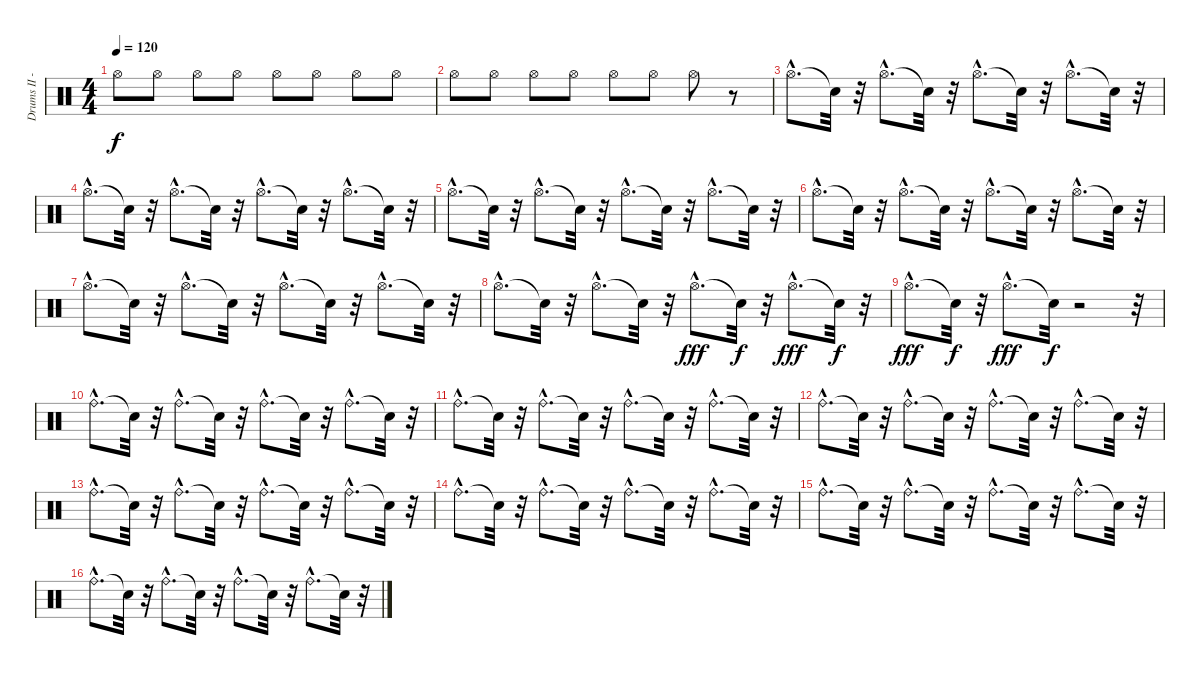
\track ("Drums II - Bobby Schayer" "Drums II -") {instrument percussion}
\staff {score}
\articulation defaults
\ts (4 4)
\tempo 120
\clef neutral
\ks c "Hi-Hat (open)".8{dy f} "Hi-Hat (open)".8 "Hi-Hat (open)".8 "Hi-Hat (open)".8 "Hi-Hat (open)".8 "Hi-Hat (open)".8 "Hi-Hat (open)".8 "Hi-Hat (open)".8
|
"Hi-Hat (open)".8 "Hi-Hat (open)".8 "Hi-Hat (open)".8 "Hi-Hat (open)".8 "Hi-Hat (open)".8 "Hi-Hat (open)".8 "Hi-Hat (open)".8 r.8 |
"Hi-Hat (open)"{hac}.8{d} "Snare (hit)"{t}.32 r.32 "Hi-Hat (open)"{hac}.8{d} "Snare (hit)"{t}.32 r.32 "Hi-Hat (open)"{hac}.8{d} "Snare (hit)"{t}.32 r.32 "Hi-Hat (open)"{hac}.8{d} "Snare (hit)"{t}.32 r.32 |
"Hi-Hat (open)"{hac}.8{d} "Snare (hit)"{t}.32 r.32 "Hi-Hat (open)"{hac}.8{d} "Snare (hit)"{t}.32 r.32 "Hi-Hat (open)"{hac}.8{d} "Snare (hit)"{t}.32 r.32 "Hi-Hat (open)"{hac}.8{d} "Snare (hit)"{t}.32 r.32 |
"Hi-Hat (open)"{hac}.8{d} "Snare (hit)"{t}.32 r.32 "Hi-Hat (open)"{hac}.8{d} "Snare (hit)"{t}.32 r.32 "Hi-Hat (open)"{hac}.8{d} "Snare (hit)"{t}.32 r.32 "Hi-Hat (open)"{hac}.8{d} "Snare (hit)"{t}.32 r.32 |
"Hi-Hat (open)"{hac}.8{d} "Snare (hit)"{t}.32 r.32 "Hi-Hat (open)"{hac}.8{d} "Snare (hit)"{t}.32 r.32 "Hi-Hat (open)"{hac}.8{d} "Snare (hit)"{t}.32 r.32 "Hi-Hat (open)"{hac}.8{d} "Snare (hit)"{t}.32 r.32 |
"Hi-Hat (open)"{hac}.8{d} "Snare (hit)"{t}.32 r.32 "Hi-Hat (open)"{hac}.8{d} "Snare (hit)"{t}.32 r.32 "Hi-Hat (open)"{hac}.8{d} "Snare (hit)"{t}.32 r.32 "Hi-Hat (open)"{hac}.8{d} "Snare (hit)"{t}.32 r.32 |
"Hi-Hat (open)"{hac}.8{d} "Snare (hit)"{t}.32 r.32 "Hi-Hat (open)"{hac}.8{d} "Snare (hit)"{t}.32 r.32 "Hi-Hat (open)"{hac}.8{d dy fff} "Snare (hit)"{t}.32{dy f} r.32 "Hi-Hat (open)"{hac}.8{d dy fff} "Snare (hit)"{t}.32{dy f} r.32 |
"Hi-Hat (open)"{hac}.8{d dy fff} "Snare (hit)"{t}.32{dy f} r.32 "Hi-Hat (open)"{hac}.8{d dy fff} "Snare (hit)"{t}.32{dy f} r.2 r.32 |
"Ride (bell)"{hac}.8{d} "Snare (hit)"{t}.32 r.32 "Ride (bell)"{hac}.8{d} "Snare (hit)"{t}.32 r.32 "Ride (bell)"{hac}.8{d} "Snare (hit)"{t}.32 r.32 "Ride (bell)"{hac}.8{d} "Snare (hit)"{t}.32 r.32 |
"Ride (bell)"{hac}.8{d} "Snare (hit)"{t}.32 r.32 "Ride (bell)"{hac}.8{d} "Snare (hit)"{t}.32 r.32 "Ride (bell)"{hac}.8{d} "Snare (hit)"{t}.32 r.32 "Ride (bell)"{hac}.8{d} "Snare (hit)"{t}.32 r.32 |
"Ride (bell)"{hac}.8{d} "Snare (hit)"{t}.32 r.32 "Ride (bell)"{hac}.8{d} "Snare (hit)"{t}.32 r.32 "Ride (bell)"{hac}.8{d} "Snare (hit)"{t}.32 r.32 "Ride (bell)"{hac}.8{d} "Snare (hit)"{t}.32 r.32 |
"Ride (bell)"{hac}.8{d} "Snare (hit)"{t}.32 r.32 "Ride (bell)"{hac}.8{d} "Snare (hit)"{t}.32 r.32 "Ride (bell)"{hac}.8{d} "Snare (hit)"{t}.32 r.32 "Ride (bell)"{hac}.8{d} "Snare (hit)"{t}.32 r.32 |
"Ride (bell)"{hac}.8{d} "Snare (hit)"{t}.32 r.32 "Ride (bell)"{hac}.8{d} "Snare (hit)"{t}.32 r.32 "Ride (bell)"{hac}.8{d} "Snare (hit)"{t}.32 r.32 "Ride (bell)"{hac}.8{d} "Snare (hit)"{t}.32 r.32 |
"Ride (bell)"{hac}.8{d} "Snare (hit)"{t}.32 r.32 "Ride (bell)"{hac}.8{d} "Snare (hit)"{t}.32 r.32 "Ride (bell)"{hac}.8{d} "Snare (hit)"{t}.32 r.32 "Ride (bell)"{hac}.8{d} "Snare (hit)"{t}.32 r.32 |
"Ride (bell)"{hac}.8{d} "Snare (hit)"{t}.32 r.32 "Ride (bell)"{hac}.8{d} "Snare (hit)"{t}.32 r.32 "Ride (bell)"{hac}.8{d} "Snare (hit)"{t}.32 r.32 "Ride (bell)"{hac}.8{d} "Snare (hit)"{t}.32 r.32
